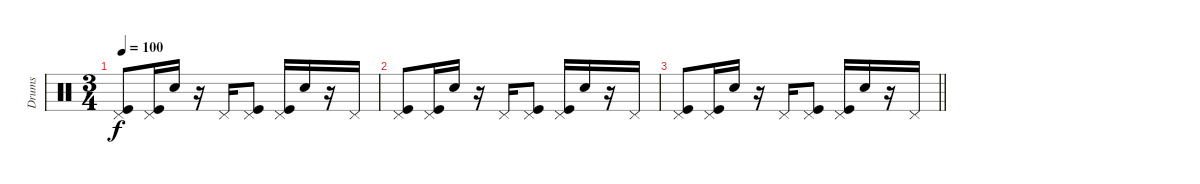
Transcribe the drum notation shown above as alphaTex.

\track ("Drums" "Drums") {instrument percussion}
\staff {score}
\articulation defaults
\ts (3 4)
\tempo 100
\clef neutral
\ks c
("Pedal Hi-Hat (hit)" "Kick (hit)").8{dy f} ("Pedal Hi-Hat (hit)" "Kick (hit)").16 "Snare (hit) 2".16 r.16 "Pedal Hi-Hat (hit)".16 ("Pedal Hi-Hat (hit)" "Kick (hit)").8 ("Pedal Hi-Hat (hit)" "Kick (hit)").16 "Snare (hit) 2".16 r.16 "Pedal Hi-Hat (hit)".16 |
("Pedal Hi-Hat (hit)" "Kick (hit)").8 ("Pedal Hi-Hat (hit)" "Kick (hit)").16 "Snare (hit) 2".16 r.16 "Pedal Hi-Hat (hit)".16 ("Pedal Hi-Hat (hit)" "Kick (hit)").8 ("Pedal Hi-Hat (hit)" "Kick (hit)").16 "Snare (hit) 2".16 r.16 "Pedal Hi-Hat (hit)".16 |
\barLineRight lightlight
("Pedal Hi-Hat (hit)" "Kick (hit)").8 ("Pedal Hi-Hat (hit)" "Kick (hit)").16 "Snare (hit) 2".16 r.16 "Pedal Hi-Hat (hit)".16 ("Pedal Hi-Hat (hit)" "Kick (hit)").8 ("Pedal Hi-Hat (hit)" "Kick (hit)").16 "Snare (hit) 2".16 r.16 "Pedal Hi-Hat (hit)".16
